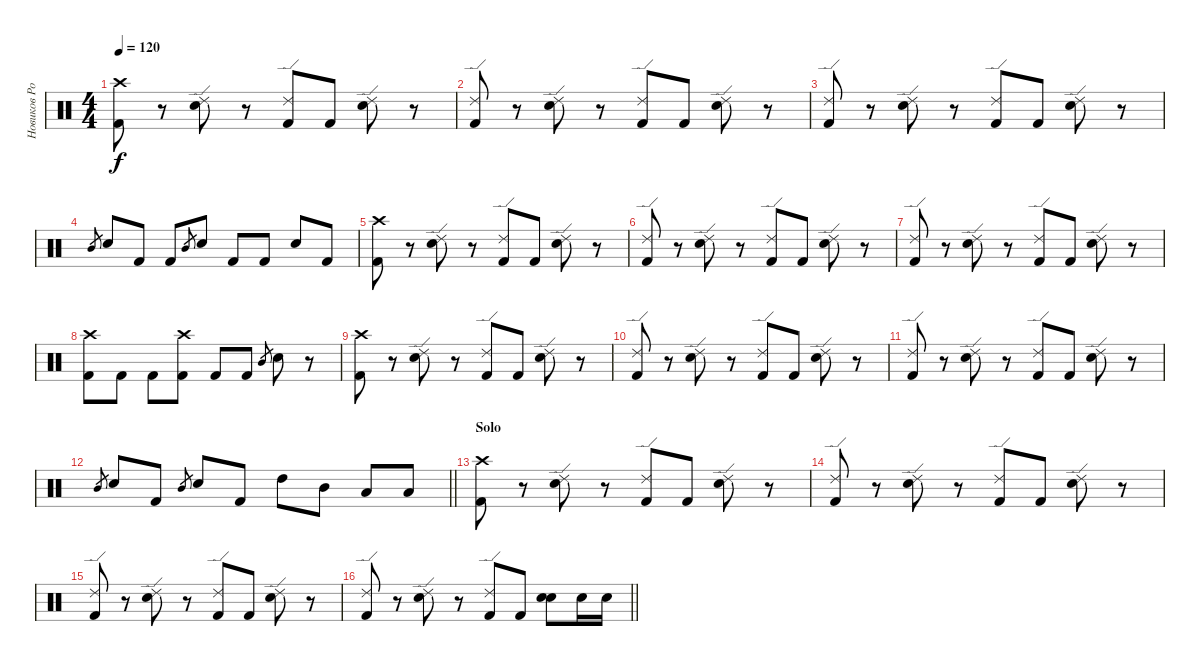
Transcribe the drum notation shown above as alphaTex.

\track ("Новиков Роман  ( Ударные )" "Новиков Ро") {instrument percussion}
\staff {score}
\articulation defaults
\ts (4 4)
\tempo 120
\clef neutral
\ks c
("Crash high (hit)" "Kick (hit) 2").8{dy f} r.8 ("Ride (edge) 2" "Electric Snare (hit)").8 r.8 ("Ride (edge) 2" "Kick (hit) 2").8 "Kick (hit) 2".8 ("Ride (edge) 2" "Electric Snare (hit)").8 r.8 |
("Ride (edge) 2" "Kick (hit) 2").8 r.8 ("Ride (edge) 2" "Electric Snare (hit)").8 r.8 ("Ride (edge) 2" "Kick (hit) 2").8 "Kick (hit) 2".8 ("Ride (edge) 2" "Electric Snare (hit)").8 r.8 |
("Ride (edge) 2" "Kick (hit) 2").8 r.8 ("Ride (edge) 2" "Electric Snare (hit)").8 r.8 ("Ride (edge) 2" "Kick (hit) 2").8 "Kick (hit) 2".8 ("Ride (edge) 2" "Electric Snare (hit)").8 r.8 |
"Mid Tom (hit)"{h}.8{gr} "Snare (hit) 2".8 "Kick (hit) 2".8 "Kick (hit) 2".8 "Mid Tom (hit)"{h}.8{gr} "Snare (hit) 2".8 "Kick (hit) 2".8 "Kick (hit) 2".8 "Snare (hit) 2".8 "Kick (hit) 2".8 |
("Crash high (hit)" "Kick (hit) 2").8 r.8 ("Ride (edge) 2" "Electric Snare (hit)").8 r.8 ("Ride (edge) 2" "Kick (hit) 2").8 "Kick (hit) 2".8 ("Ride (edge) 2" "Electric Snare (hit)").8 r.8 |
("Ride (edge) 2" "Kick (hit) 2").8 r.8 ("Ride (edge) 2" "Electric Snare (hit)").8 r.8 ("Ride (edge) 2" "Kick (hit) 2").8 "Kick (hit) 2".8 ("Ride (edge) 2" "Electric Snare (hit)").8 r.8 |
("Ride (edge) 2" "Kick (hit) 2").8 r.8 ("Ride (edge) 2" "Electric Snare (hit)").8 r.8 ("Ride (edge) 2" "Kick (hit) 2").8 "Kick (hit) 2".8 ("Ride (edge) 2" "Electric Snare (hit)").8 r.8 |
("Crash high (hit)" "Kick (hit) 2").8 "Kick (hit) 2".8 "Kick (hit) 2".8 ("Kick (hit) 2" "Crash high (hit)").8 "Kick (hit) 2".8 "Kick (hit) 2".8 "Mid Tom (hit)"{h}.8{gr} "Snare (hit) 2".8 r.8 |
("Crash high (hit)" "Kick (hit) 2").8 r.8 ("Ride (edge) 2" "Electric Snare (hit)").8 r.8 ("Ride (edge) 2" "Kick (hit) 2").8 "Kick (hit) 2".8 ("Ride (edge) 2" "Electric Snare (hit)").8 r.8 |
("Ride (edge) 2" "Kick (hit) 2").8 r.8 ("Ride (edge) 2" "Electric Snare (hit)").8 r.8 ("Ride (edge) 2" "Kick (hit) 2").8 "Kick (hit) 2".8 ("Ride (edge) 2" "Electric Snare (hit)").8 r.8 |
("Ride (edge) 2" "Kick (hit) 2").8 r.8 ("Ride (edge) 2" "Electric Snare (hit)").8 r.8 ("Ride (edge) 2" "Kick (hit) 2").8 "Kick (hit) 2".8 ("Ride (edge) 2" "Electric Snare (hit)").8 r.8 |
\barLineRight lightlight "Mid Tom (hit)"{h}.8{gr} "Snare (hit) 2".8 "Kick (hit) 2".8 "Mid Tom (hit)"{h}.8{gr} "Snare (hit) 2".8 "Kick (hit) 2".8 "High Tom (hit)".8 "Mid Tom (hit)".8 "Low Tom (hit)".8 "Low Floor Tom (hit)".8
|
\section ("" "Solo")
("Crash high (hit)" "Kick (hit) 2").8 r.8 ("Ride (edge) 2" "Electric Snare (hit)").8 r.8 ("Ride (edge) 2" "Kick (hit) 2").8 "Kick (hit) 2".8 ("Ride (edge) 2" "Electric Snare (hit)").8 r.8 |
("Ride (edge) 2" "Kick (hit) 2").8 r.8 ("Ride (edge) 2" "Electric Snare (hit)").8 r.8 ("Ride (edge) 2" "Kick (hit) 2").8 "Kick (hit) 2".8 ("Ride (edge) 2" "Electric Snare (hit)").8 r.8 |
("Ride (edge) 2" "Kick (hit) 2").8 r.8 ("Ride (edge) 2" "Electric Snare (hit)").8 r.8 ("Ride (edge) 2" "Kick (hit) 2").8 "Kick (hit) 2".8 ("Ride (edge) 2" "Electric Snare (hit)").8 r.8 |
\barLineRight lightlight
("Ride (edge) 2" "Kick (hit) 2").8 r.8 ("Ride (edge) 2" "Electric Snare (hit)").8 r.8 ("Ride (edge) 2" "Kick (hit) 2").8 "Kick (hit) 2".8 ("Snare (hit) 2" "Electric Snare (hit)").8 "Snare (hit) 2".16 "Snare (hit) 2".16
